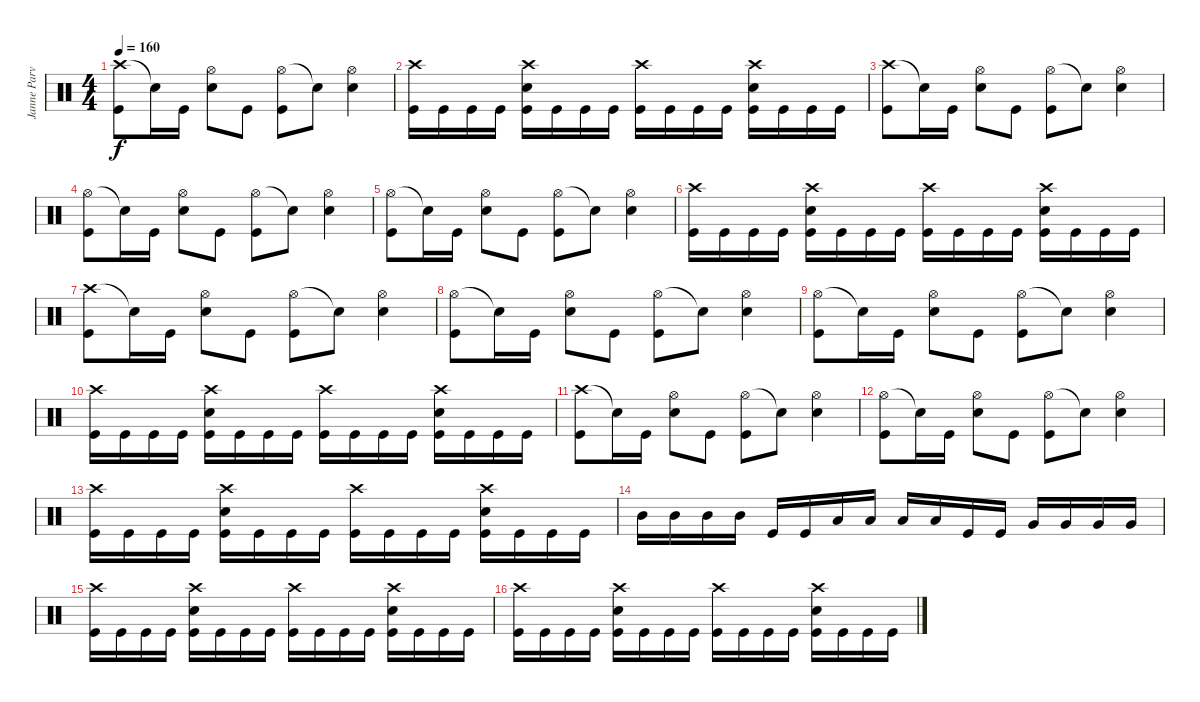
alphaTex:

\track ("Janne Parviainen" "Janne Parv") {instrument percussion}
\staff {score}
\articulation defaults
\ts (4 4)
\tempo 160
\clef neutral
\ks c
("Crash high (hit)" "Kick (hit)").8{dy f} "Snare (hit)"{t}.16 "Kick (hit)".16 ("Hi-Hat (open)" "Electric Snare (hit)").8 "Kick (hit)".8 ("Hi-Hat (open)" "Kick (hit)").8 "Snare (hit)"{t}.8 ("Hi-Hat (open)" "Electric Snare (hit)").4 |
("Crash high (hit)" "Kick (hit)").16 "Kick (hit)".16 "Kick (hit)".16 "Kick (hit)".16 ("Crash high (hit)" "Electric Snare (hit)" "Kick (hit)").16 "Kick (hit)".16 "Kick (hit)".16 "Kick (hit)".16 ("Crash high (hit)" "Kick (hit)").16 "Kick (hit)".16 "Kick (hit)".16 "Kick (hit)".16 ("Crash high (hit)" "Electric Snare (hit)" "Kick (hit)").16 "Kick (hit)".16 "Kick (hit)".16 "Kick (hit)".16 |
("Crash high (hit)" "Kick (hit)").8 "Snare (hit)"{t}.16 "Kick (hit)".16 ("Hi-Hat (open)" "Electric Snare (hit)").8 "Kick (hit)".8 ("Hi-Hat (open)" "Kick (hit)").8 "Snare (hit)"{t}.8 ("Hi-Hat (open)" "Electric Snare (hit)").4 |
("Hi-Hat (open)" "Kick (hit)").8 "Snare (hit)"{t}.16 "Kick (hit)".16 ("Hi-Hat (open)" "Electric Snare (hit)").8 "Kick (hit)".8 ("Hi-Hat (open)" "Kick (hit)").8 "Snare (hit)"{t}.8 ("Hi-Hat (open)" "Electric Snare (hit)").4 |
("Hi-Hat (open)" "Kick (hit)").8 "Snare (hit)"{t}.16 "Kick (hit)".16 ("Hi-Hat (open)" "Electric Snare (hit)").8 "Kick (hit)".8 ("Hi-Hat (open)" "Kick (hit)").8 "Snare (hit)"{t}.8 ("Hi-Hat (open)" "Electric Snare (hit)").4 |
("Crash high (hit)" "Kick (hit)").16 "Kick (hit)".16 "Kick (hit)".16 "Kick (hit)".16 ("Crash high (hit)" "Electric Snare (hit)" "Kick (hit)").16 "Kick (hit)".16 "Kick (hit)".16 "Kick (hit)".16 ("Crash high (hit)" "Kick (hit)").16 "Kick (hit)".16 "Kick (hit)".16 "Kick (hit)".16 ("Crash high (hit)" "Electric Snare (hit)" "Kick (hit)").16 "Kick (hit)".16 "Kick (hit)".16 "Kick (hit)".16 |
("Crash high (hit)" "Kick (hit)").8 "Snare (hit)"{t}.16 "Kick (hit)".16 ("Hi-Hat (open)" "Electric Snare (hit)").8 "Kick (hit)".8 ("Hi-Hat (open)" "Kick (hit)").8 "Snare (hit)"{t}.8 ("Hi-Hat (open)" "Electric Snare (hit)").4 |
("Hi-Hat (open)" "Kick (hit)").8 "Snare (hit)"{t}.16 "Kick (hit)".16 ("Hi-Hat (open)" "Electric Snare (hit)").8 "Kick (hit)".8 ("Hi-Hat (open)" "Kick (hit)").8 "Snare (hit)"{t}.8 ("Hi-Hat (open)" "Electric Snare (hit)").4 |
("Hi-Hat (open)" "Kick (hit)").8 "Snare (hit)"{t}.16 "Kick (hit)".16 ("Hi-Hat (open)" "Electric Snare (hit)").8 "Kick (hit)".8 ("Hi-Hat (open)" "Kick (hit)").8 "Snare (hit)"{t}.8 ("Hi-Hat (open)" "Electric Snare (hit)").4 |
("Crash high (hit)" "Kick (hit)").16 "Kick (hit)".16 "Kick (hit)".16 "Kick (hit)".16 ("Crash high (hit)" "Electric Snare (hit)" "Kick (hit)").16 "Kick (hit)".16 "Kick (hit)".16 "Kick (hit)".16 ("Crash high (hit)" "Kick (hit)").16 "Kick (hit)".16 "Kick (hit)".16 "Kick (hit)".16 ("Crash high (hit)" "Electric Snare (hit)" "Kick (hit)").16 "Kick (hit)".16 "Kick (hit)".16 "Kick (hit)".16 |
("Crash high (hit)" "Kick (hit)").8 "Snare (hit)"{t}.16 "Kick (hit)".16 ("Hi-Hat (open)" "Electric Snare (hit)").8 "Kick (hit)".8 ("Hi-Hat (open)" "Kick (hit)").8 "Snare (hit)"{t}.8 ("Hi-Hat (open)" "Electric Snare (hit)").4 |
("Hi-Hat (open)" "Kick (hit)").8 "Snare (hit)"{t}.16 "Kick (hit)".16 ("Hi-Hat (open)" "Electric Snare (hit)").8 "Kick (hit)".8 ("Hi-Hat (open)" "Kick (hit)").8 "Snare (hit)"{t}.8 ("Hi-Hat (open)" "Electric Snare (hit)").4 |
("Crash high (hit)" "Kick (hit)").16 "Kick (hit)".16 "Kick (hit)".16 "Kick (hit)".16 ("Crash high (hit)" "Electric Snare (hit)" "Kick (hit)").16 "Kick (hit)".16 "Kick (hit)".16 "Kick (hit)".16 ("Crash high (hit)" "Kick (hit)").16 "Kick (hit)".16 "Kick (hit)".16 "Kick (hit)".16 ("Crash high (hit)" "Electric Snare (hit)" "Kick (hit)").16 "Kick (hit)".16 "Kick (hit)".16 "Kick (hit)".16 |
"Mid Tom (hit)".16 "Mid Tom (hit)".16 "Mid Tom (hit)".16 "Mid Tom (hit)".16 "Kick (hit)".16 "Kick (hit)".16 "Low Tom (hit)".16 "Low Tom (hit)".16 "Low Tom (hit)".16 "Low Tom (hit)".16 "Kick (hit)".16 "Kick (hit)".16 "Very Low Tom (hit)".16 "Very Low Tom (hit)".16 "Very Low Tom (hit)".16 "Very Low Tom (hit)".16 |
("Crash high (hit)" "Kick (hit)").16 "Kick (hit)".16 "Kick (hit)".16 "Kick (hit)".16 ("Crash high (hit)" "Electric Snare (hit)" "Kick (hit)").16 "Kick (hit)".16 "Kick (hit)".16 "Kick (hit)".16 ("Crash high (hit)" "Kick (hit)").16 "Kick (hit)".16 "Kick (hit)".16 "Kick (hit)".16 ("Crash high (hit)" "Electric Snare (hit)" "Kick (hit)").16 "Kick (hit)".16 "Kick (hit)".16 "Kick (hit)".16 |
("Crash high (hit)" "Kick (hit)").16 "Kick (hit)".16 "Kick (hit)".16 "Kick (hit)".16 ("Crash high (hit)" "Electric Snare (hit)" "Kick (hit)").16 "Kick (hit)".16 "Kick (hit)".16 "Kick (hit)".16 ("Crash high (hit)" "Kick (hit)").16 "Kick (hit)".16 "Kick (hit)".16 "Kick (hit)".16 ("Crash high (hit)" "Electric Snare (hit)" "Kick (hit)").16 "Kick (hit)".16 "Kick (hit)".16 "Kick (hit)".16
